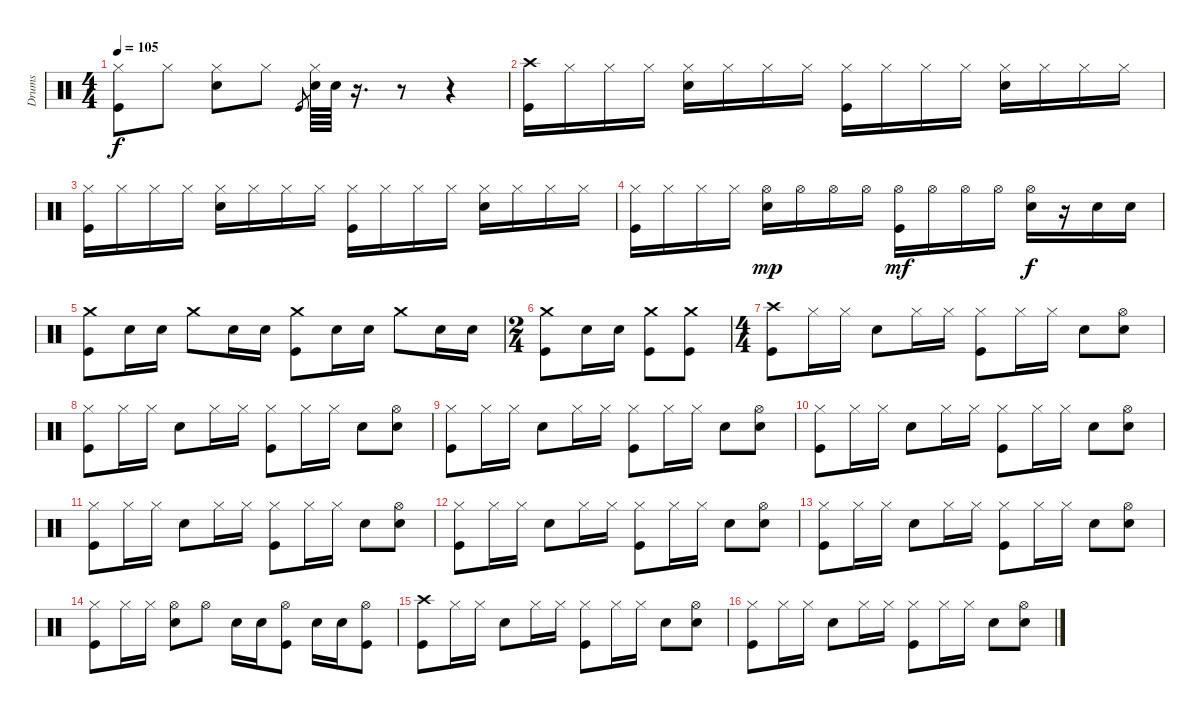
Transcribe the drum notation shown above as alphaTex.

\track ("Drums" "Drums") {instrument percussion}
\staff {score}
\articulation defaults
\ts (4 4)
\tempo 105
\clef neutral
\ks c
("Hi-Hat (closed)" "Kick (hit)").8{dy f} "Hi-Hat (closed)".8 ("Hi-Hat (closed)" "Snare (hit) 2").8 "Hi-Hat (closed)".8 "Kick (hit)".8{gr} ("Hi-Hat (closed)" "Snare (hit) 2").64 "Snare (hit) 2".64 r.16{d} r.8 r.4 |
("Crash high (hit)" "Kick (hit)").16 "Hi-Hat (closed)".16 "Hi-Hat (closed)".16 "Hi-Hat (closed)".16 ("Hi-Hat (closed)" "Snare (hit) 2").16 "Hi-Hat (closed)".16 "Hi-Hat (closed)".16 "Hi-Hat (closed)".16 ("Hi-Hat (closed)" "Kick (hit)").16 "Hi-Hat (closed)".16 "Hi-Hat (closed)".16 "Hi-Hat (closed)".16 ("Hi-Hat (closed)" "Snare (hit) 2").16 "Hi-Hat (closed)".16 "Hi-Hat (closed)".16 "Hi-Hat (closed)".16 |
("Hi-Hat (closed)" "Kick (hit)").16 "Hi-Hat (closed)".16 "Hi-Hat (closed)".16 "Hi-Hat (closed)".16 ("Hi-Hat (closed)" "Snare (hit) 2").16 "Hi-Hat (closed)".16 "Hi-Hat (closed)".16 "Hi-Hat (closed)".16 ("Hi-Hat (closed)" "Kick (hit)").16 "Hi-Hat (closed)".16 "Hi-Hat (closed)".16 "Hi-Hat (closed)".16 ("Hi-Hat (closed)" "Snare (hit) 2").16 "Hi-Hat (closed)".16 "Hi-Hat (closed)".16 "Hi-Hat (closed)".16 |
("Hi-Hat (closed)" "Kick (hit)").16 "Hi-Hat (closed)".16 "Hi-Hat (closed)".16 "Hi-Hat (closed)".16 ("Hi-Hat (open)" "Snare (hit) 2").16{dy mp} "Hi-Hat (open)".16 "Hi-Hat (open)".16 "Hi-Hat (open)".16 ("Hi-Hat (open)" "Kick (hit)").16{dy mf} "Hi-Hat (open)".16 "Hi-Hat (open)".16 "Hi-Hat (open)".16 ("Hi-Hat (open)" "Snare (hit) 2").16{dy f} r.16 "Snare (hit) 2".16 "Snare (hit) 2".16 |
("Kick (hit)" "Crash medium (hit)").8 "Snare (hit) 2".16 "Snare (hit) 2".16 "Crash medium (hit)".8 "Snare (hit) 2".16 "Snare (hit) 2".16 ("Kick (hit)" "Crash medium (hit)").8 "Snare (hit) 2".16 "Snare (hit) 2".16 "Crash medium (hit)".8 "Snare (hit) 2".16 "Snare (hit) 2".16 |
\ts (2 4)
("Kick (hit)" "Crash medium (hit)").8 "Snare (hit) 2".16 "Snare (hit) 2".16 ("Kick (hit)" "Crash medium (hit)").8 ("Kick (hit)" "Crash medium (hit)").8 |
\ts (4 4)
("Crash high (hit)" "Kick (hit)").8 "Hi-Hat (closed)".16 "Hi-Hat (closed)".16 "Snare (hit) 2".8 "Hi-Hat (closed)".16 "Hi-Hat (closed)".16 ("Hi-Hat (closed)" "Kick (hit)").8 "Hi-Hat (closed)".16 "Hi-Hat (closed)".16 "Snare (hit) 2".8 ("Hi-Hat (open)" "Snare (hit) 2").8 |
("Hi-Hat (closed)" "Kick (hit)").8 "Hi-Hat (closed)".16 "Hi-Hat (closed)".16 "Snare (hit) 2".8 "Hi-Hat (closed)".16 "Hi-Hat (closed)".16 ("Hi-Hat (closed)" "Kick (hit)").8 "Hi-Hat (closed)".16 "Hi-Hat (closed)".16 "Snare (hit) 2".8 ("Hi-Hat (open)" "Snare (hit) 2").8 |
("Hi-Hat (closed)" "Kick (hit)").8 "Hi-Hat (closed)".16 "Hi-Hat (closed)".16 "Snare (hit) 2".8 "Hi-Hat (closed)".16 "Hi-Hat (closed)".16 ("Hi-Hat (closed)" "Kick (hit)").8 "Hi-Hat (closed)".16 "Hi-Hat (closed)".16 "Snare (hit) 2".8 ("Hi-Hat (open)" "Snare (hit) 2").8 |
("Hi-Hat (closed)" "Kick (hit)").8 "Hi-Hat (closed)".16 "Hi-Hat (closed)".16 "Snare (hit) 2".8 "Hi-Hat (closed)".16 "Hi-Hat (closed)".16 ("Hi-Hat (closed)" "Kick (hit)").8 "Hi-Hat (closed)".16 "Hi-Hat (closed)".16 "Snare (hit) 2".8 ("Hi-Hat (open)" "Snare (hit) 2").8 |
("Hi-Hat (closed)" "Kick (hit)").8 "Hi-Hat (closed)".16 "Hi-Hat (closed)".16 "Snare (hit) 2".8 "Hi-Hat (closed)".16 "Hi-Hat (closed)".16 ("Hi-Hat (closed)" "Kick (hit)").8 "Hi-Hat (closed)".16 "Hi-Hat (closed)".16 "Snare (hit) 2".8 ("Hi-Hat (open)" "Snare (hit) 2").8 |
("Hi-Hat (closed)" "Kick (hit)").8 "Hi-Hat (closed)".16 "Hi-Hat (closed)".16 "Snare (hit) 2".8 "Hi-Hat (closed)".16 "Hi-Hat (closed)".16 ("Hi-Hat (closed)" "Kick (hit)").8 "Hi-Hat (closed)".16 "Hi-Hat (closed)".16 "Snare (hit) 2".8 ("Hi-Hat (open)" "Snare (hit) 2").8 |
("Hi-Hat (closed)" "Kick (hit)").8 "Hi-Hat (closed)".16 "Hi-Hat (closed)".16 "Snare (hit) 2".8 "Hi-Hat (closed)".16 "Hi-Hat (closed)".16 ("Hi-Hat (closed)" "Kick (hit)").8 "Hi-Hat (closed)".16 "Hi-Hat (closed)".16 "Snare (hit) 2".8 ("Hi-Hat (open)" "Snare (hit) 2").8 |
("Hi-Hat (closed)" "Kick (hit)").8 "Hi-Hat (closed)".16 "Hi-Hat (closed)".16 ("Hi-Hat (open)" "Snare (hit) 2").8 "Hi-Hat (open)".8 "Snare (hit) 2".16 "Snare (hit) 2".16 ("Hi-Hat (open)" "Kick (hit)").8 "Snare (hit) 2".16 "Snare (hit) 2".16 ("Hi-Hat (open)" "Kick (hit)").8 |
("Crash high (hit)" "Kick (hit)").8 "Hi-Hat (closed)".16 "Hi-Hat (closed)".16 "Snare (hit) 2".8 "Hi-Hat (closed)".16 "Hi-Hat (closed)".16 ("Hi-Hat (closed)" "Kick (hit)").8 "Hi-Hat (closed)".16 "Hi-Hat (closed)".16 "Snare (hit) 2".8 ("Hi-Hat (open)" "Snare (hit) 2").8 |
("Hi-Hat (closed)" "Kick (hit)").8 "Hi-Hat (closed)".16 "Hi-Hat (closed)".16 "Snare (hit) 2".8 "Hi-Hat (closed)".16 "Hi-Hat (closed)".16 ("Hi-Hat (closed)" "Kick (hit)").8 "Hi-Hat (closed)".16 "Hi-Hat (closed)".16 "Snare (hit) 2".8 ("Hi-Hat (open)" "Snare (hit) 2").8
